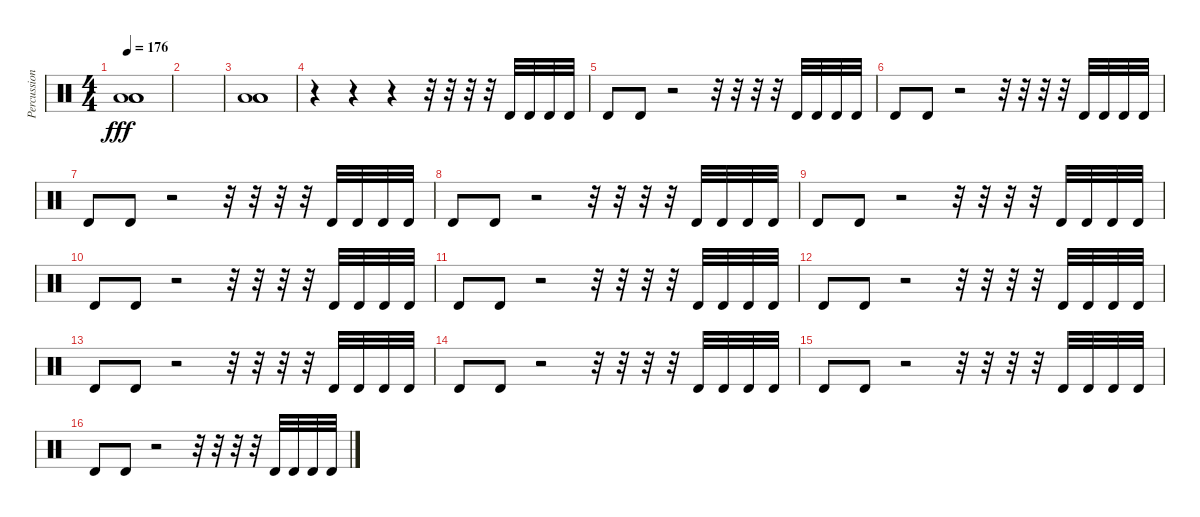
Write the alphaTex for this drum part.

\track ("Percussion" "Percussion") {instrument percussion}
\staff {score}
\articulation defaults
\ts (4 4)
\tempo 176
\clef neutral
\ks c
("Low Floor Tom (hit)" "Low Floor Tom (hit)" "Low Floor Tom (hit)").1{dy fff} |
|
("Low Floor Tom (hit)" "Low Floor Tom (hit)" "Low Floor Tom (hit)").1 |
r.4 r.4 r.4 r.32 r.32 r.32 r.32 "Timbale high (hit)".32 "Timbale high (hit)".32 "Timbale high (hit)".32 "Timbale high (hit)".32 |
"Timbale high (hit)".8 "Timbale high (hit)".8 r.2 r.32 r.32 r.32 r.32 "Timbale high (hit)".32 "Timbale high (hit)".32 "Timbale high (hit)".32 "Timbale high (hit)".32 |
"Timbale high (hit)".8 "Timbale high (hit)".8 r.2 r.32 r.32 r.32 r.32 "Timbale high (hit)".32 "Timbale high (hit)".32 "Timbale high (hit)".32 "Timbale high (hit)".32 |
"Timbale high (hit)".8 "Timbale high (hit)".8 r.2 r.32 r.32 r.32 r.32 "Timbale high (hit)".32 "Timbale high (hit)".32 "Timbale high (hit)".32 "Timbale high (hit)".32 |
"Timbale high (hit)".8 "Timbale high (hit)".8 r.2 r.32 r.32 r.32 r.32 "Timbale high (hit)".32 "Timbale high (hit)".32 "Timbale high (hit)".32 "Timbale high (hit)".32 |
"Timbale high (hit)".8 "Timbale high (hit)".8 r.2 r.32 r.32 r.32 r.32 "Timbale high (hit)".32 "Timbale high (hit)".32 "Timbale high (hit)".32 "Timbale high (hit)".32 |
"Timbale high (hit)".8 "Timbale high (hit)".8 r.2 r.32 r.32 r.32 r.32 "Timbale high (hit)".32 "Timbale high (hit)".32 "Timbale high (hit)".32 "Timbale high (hit)".32 |
"Timbale high (hit)".8 "Timbale high (hit)".8 r.2 r.32 r.32 r.32 r.32 "Timbale high (hit)".32 "Timbale high (hit)".32 "Timbale high (hit)".32 "Timbale high (hit)".32 |
"Timbale high (hit)".8 "Timbale high (hit)".8 r.2 r.32 r.32 r.32 r.32 "Timbale high (hit)".32 "Timbale high (hit)".32 "Timbale high (hit)".32 "Timbale high (hit)".32 |
"Timbale high (hit)".8 "Timbale high (hit)".8 r.2 r.32 r.32 r.32 r.32 "Timbale high (hit)".32 "Timbale high (hit)".32 "Timbale high (hit)".32 "Timbale high (hit)".32 |
"Timbale high (hit)".8 "Timbale high (hit)".8 r.2 r.32 r.32 r.32 r.32 "Timbale high (hit)".32 "Timbale high (hit)".32 "Timbale high (hit)".32 "Timbale high (hit)".32 |
"Timbale high (hit)".8 "Timbale high (hit)".8 r.2 r.32 r.32 r.32 r.32 "Timbale high (hit)".32 "Timbale high (hit)".32 "Timbale high (hit)".32 "Timbale high (hit)".32 |
"Timbale high (hit)".8 "Timbale high (hit)".8 r.2 r.32 r.32 r.32 r.32 "Timbale high (hit)".32 "Timbale high (hit)".32 "Timbale high (hit)".32 "Timbale high (hit)".32
